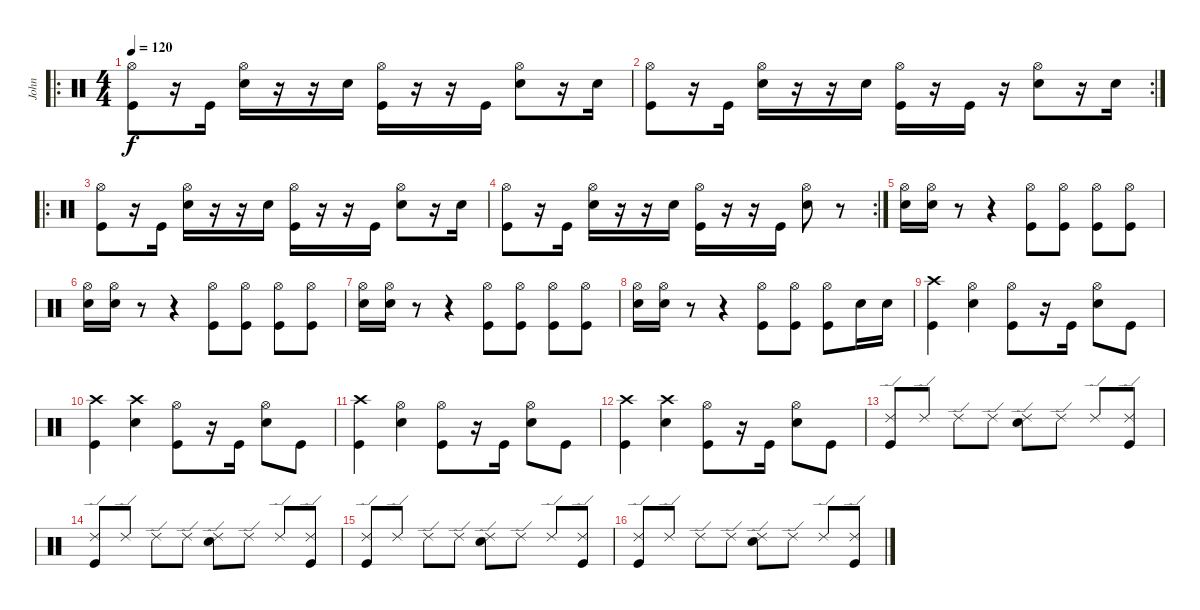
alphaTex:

\track ("John" "John") {instrument percussion}
\staff {score}
\articulation defaults
\ro
\ts (4 4)
\tempo 120
\clef neutral
\ks c
("Hi-Hat (open)" "Kick (hit)").8{dy f} r.16 "Kick (hit)".16 ("Hi-Hat (open)" "Snare (hit) 2").16 r.16 r.16 "Snare (hit) 2".16 ("Hi-Hat (open)" "Kick (hit)").16 r.16 r.16 "Kick (hit)".16 ("Hi-Hat (open)" "Snare (hit) 2").8 r.16 "Snare (hit) 2".16 |
\rc 2
("Hi-Hat (open)" "Kick (hit)").8 r.16 "Kick (hit)".16 ("Hi-Hat (open)" "Snare (hit) 2").16 r.16 r.16 "Snare (hit) 2".16 ("Hi-Hat (open)" "Kick (hit)").16 r.16 "Kick (hit)".16 r.16 ("Hi-Hat (open)" "Snare (hit) 2").8 r.16 "Snare (hit) 2".16 |
\ro
("Hi-Hat (open)" "Kick (hit)").8 r.16 "Kick (hit)".16 ("Hi-Hat (open)" "Snare (hit) 2").16 r.16 r.16 "Snare (hit) 2".16 ("Hi-Hat (open)" "Kick (hit)").16 r.16 r.16 "Kick (hit)".16 ("Hi-Hat (open)" "Snare (hit) 2").8 r.16 "Snare (hit) 2".16 |
\rc 2
("Hi-Hat (open)" "Kick (hit)").8 r.16 "Kick (hit)".16 ("Hi-Hat (open)" "Snare (hit) 2").16 r.16 r.16 "Snare (hit) 2".16 ("Hi-Hat (open)" "Kick (hit)").16 r.16 r.16 "Kick (hit)".16 ("Hi-Hat (open)" "Snare (hit) 2").8 r.8 |
("Hi-Hat (open)" "Snare (hit) 2").16 ("Hi-Hat (open)" "Snare (hit) 2").16 r.8 r.4 ("Hi-Hat (open)" "Kick (hit)").8 ("Hi-Hat (open)" "Kick (hit)").8 ("Hi-Hat (open)" "Kick (hit)").8 ("Hi-Hat (open)" "Kick (hit)").8 |
("Hi-Hat (open)" "Snare (hit) 2").16 ("Hi-Hat (open)" "Snare (hit) 2").16 r.8 r.4 ("Hi-Hat (open)" "Kick (hit)").8 ("Hi-Hat (open)" "Kick (hit)").8 ("Hi-Hat (open)" "Kick (hit)").8 ("Hi-Hat (open)" "Kick (hit)").8 |
("Hi-Hat (open)" "Snare (hit) 2").16 ("Hi-Hat (open)" "Snare (hit) 2").16 r.8 r.4 ("Hi-Hat (open)" "Kick (hit)").8 ("Hi-Hat (open)" "Kick (hit)").8 ("Hi-Hat (open)" "Kick (hit)").8 ("Hi-Hat (open)" "Kick (hit)").8 |
("Hi-Hat (open)" "Snare (hit) 2").16 ("Hi-Hat (open)" "Snare (hit) 2").16 r.8 r.4 ("Hi-Hat (open)" "Kick (hit)").8 ("Hi-Hat (open)" "Kick (hit)").8 ("Hi-Hat (open)" "Kick (hit)").8 "Snare (hit) 2".16 "Snare (hit) 2".16 |
("Crash high (hit)" "Kick (hit)").4 ("Hi-Hat (open)" "Snare (hit) 2").4 ("Hi-Hat (open)" "Kick (hit)").8 r.16 "Kick (hit)".16 ("Hi-Hat (open)" "Snare (hit) 2").8 "Kick (hit)".8 |
("Crash high (hit)" "Kick (hit)").4 ("Crash high (hit)" "Snare (hit) 2").4 ("Hi-Hat (open)" "Kick (hit)").8 r.16 "Kick (hit)".16 ("Hi-Hat (open)" "Snare (hit) 2").8 "Kick (hit)".8 |
("Crash high (hit)" "Kick (hit)").4 ("Hi-Hat (open)" "Snare (hit) 2").4 ("Hi-Hat (open)" "Kick (hit)").8 r.16 "Kick (hit)".16 ("Hi-Hat (open)" "Snare (hit) 2").8 "Kick (hit)".8 |
("Crash high (hit)" "Kick (hit)").4 ("Crash high (hit)" "Snare (hit) 2").4 ("Hi-Hat (open)" "Kick (hit)").8 r.16 "Kick (hit)".16 ("Hi-Hat (open)" "Snare (hit) 2").8 "Kick (hit)".8 |
("Ride (edge) 2" "Kick (hit)").8 "Ride (edge) 2".8 "Ride (edge) 2".8 "Ride (edge) 2".8 ("Ride (edge) 2" "Snare (hit) 2").8 "Ride (edge) 2".8 "Ride (edge) 2".8 ("Ride (edge) 2" "Kick (hit)").8 |
("Ride (edge) 2" "Kick (hit)").8 "Ride (edge) 2".8 "Ride (edge) 2".8 "Ride (edge) 2".8 ("Ride (edge) 2" "Snare (hit) 2").8 "Ride (edge) 2".8 "Ride (edge) 2".8 ("Ride (edge) 2" "Kick (hit)").8 |
("Ride (edge) 2" "Kick (hit)").8 "Ride (edge) 2".8 "Ride (edge) 2".8 "Ride (edge) 2".8 ("Ride (edge) 2" "Snare (hit) 2").8 "Ride (edge) 2".8 "Ride (edge) 2".8 ("Ride (edge) 2" "Kick (hit)").8 |
("Ride (edge) 2" "Kick (hit)").8 "Ride (edge) 2".8 "Ride (edge) 2".8 "Ride (edge) 2".8 ("Ride (edge) 2" "Snare (hit) 2").8 "Ride (edge) 2".8 "Ride (edge) 2".8 ("Ride (edge) 2" "Kick (hit)").8
